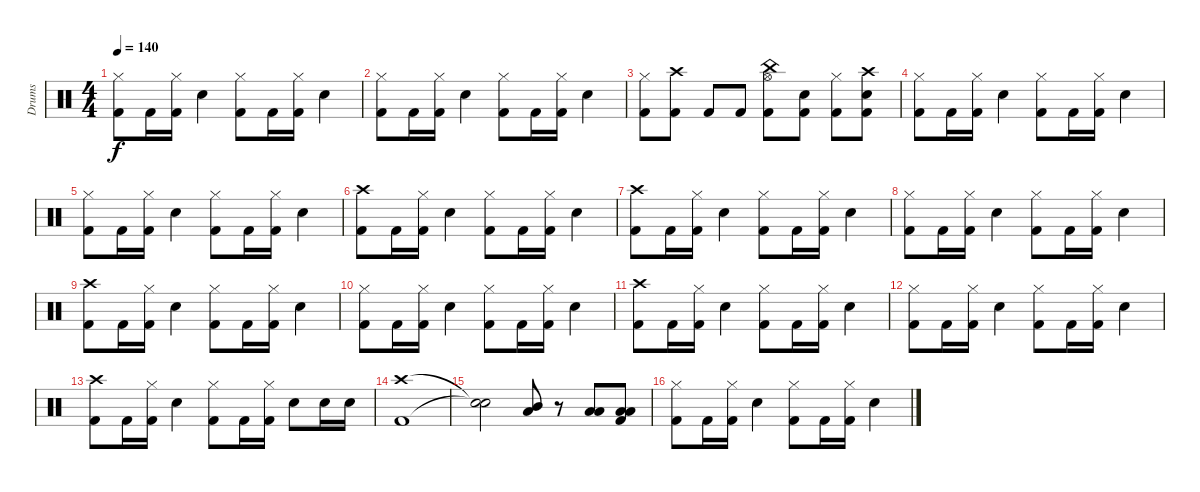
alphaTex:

\track ("Drums" "Drums") {instrument percussion}
\staff {score}
\articulation defaults
\ts (4 4)
\tempo 140
\clef neutral
\ks c
("Hi-Hat (closed)" "Kick (hit) 2").8{dy f} "Kick (hit) 2".16 ("Hi-Hat (closed)" "Kick (hit) 2").16 "Electric Snare (hit)".4 ("Hi-Hat (closed)" "Kick (hit) 2").8 "Kick (hit) 2".16 ("Hi-Hat (closed)" "Kick (hit) 2").16 "Electric Snare (hit)".4 |
("Hi-Hat (closed)" "Kick (hit) 2").8 "Kick (hit) 2".16 ("Hi-Hat (closed)" "Kick (hit) 2").16 "Electric Snare (hit)".4 ("Hi-Hat (closed)" "Kick (hit) 2").8 "Kick (hit) 2".16 ("Hi-Hat (closed)" "Kick (hit) 2").16 "Electric Snare (hit)".4 |
("Hi-Hat (closed)" "Kick (hit) 2").8 ("Crash high (hit)" "Kick (hit) 2").8 "Kick (hit) 2".8 "Kick (hit) 2".8 ("China (hit)" "Hi-Hat (open)" "Kick (hit) 2").8 ("Electric Snare (hit)" "Kick (hit) 2").8 ("Hi-Hat (closed)" "Kick (hit) 2").8 ("Crash high (hit)" "Electric Snare (hit)" "Kick (hit) 2").8 |
("Hi-Hat (closed)" "Kick (hit) 2").8 "Kick (hit) 2".16 ("Hi-Hat (closed)" "Kick (hit) 2").16 "Electric Snare (hit)".4 ("Hi-Hat (closed)" "Kick (hit) 2").8 "Kick (hit) 2".16 ("Hi-Hat (closed)" "Kick (hit) 2").16 "Electric Snare (hit)".4 |
("Hi-Hat (closed)" "Kick (hit) 2").8 "Kick (hit) 2".16 ("Hi-Hat (closed)" "Kick (hit) 2").16 "Electric Snare (hit)".4 ("Hi-Hat (closed)" "Kick (hit) 2").8 "Kick (hit) 2".16 ("Hi-Hat (closed)" "Kick (hit) 2").16 "Electric Snare (hit)".4 |
("Crash high (hit)" "Kick (hit) 2").8 "Kick (hit) 2".16 ("Hi-Hat (closed)" "Kick (hit) 2").16 "Electric Snare (hit)".4 ("Hi-Hat (closed)" "Kick (hit) 2").8 "Kick (hit) 2".16 ("Hi-Hat (closed)" "Kick (hit) 2").16 "Electric Snare (hit)".4 |
("Crash high (hit)" "Kick (hit) 2").8 "Kick (hit) 2".16 ("Hi-Hat (closed)" "Kick (hit) 2").16 "Electric Snare (hit)".4 ("Hi-Hat (closed)" "Kick (hit) 2").8 "Kick (hit) 2".16 ("Hi-Hat (closed)" "Kick (hit) 2").16 "Electric Snare (hit)".4 |
("Hi-Hat (closed)" "Kick (hit) 2").8 "Kick (hit) 2".16 ("Hi-Hat (closed)" "Kick (hit) 2").16 "Electric Snare (hit)".4 ("Hi-Hat (closed)" "Kick (hit) 2").8 "Kick (hit) 2".16 ("Hi-Hat (closed)" "Kick (hit) 2").16 "Electric Snare (hit)".4 |
("Crash high (hit)" "Kick (hit) 2").8 "Kick (hit) 2".16 ("Hi-Hat (closed)" "Kick (hit) 2").16 "Electric Snare (hit)".4 ("Hi-Hat (closed)" "Kick (hit) 2").8 "Kick (hit) 2".16 ("Hi-Hat (closed)" "Kick (hit) 2").16 "Electric Snare (hit)".4 |
("Hi-Hat (closed)" "Kick (hit) 2").8 "Kick (hit) 2".16 ("Hi-Hat (closed)" "Kick (hit) 2").16 "Electric Snare (hit)".4 ("Hi-Hat (closed)" "Kick (hit) 2").8 "Kick (hit) 2".16 ("Hi-Hat (closed)" "Kick (hit) 2").16 "Electric Snare (hit)".4 |
("Crash high (hit)" "Kick (hit) 2").8 "Kick (hit) 2".16 ("Hi-Hat (closed)" "Kick (hit) 2").16 "Electric Snare (hit)".4 ("Hi-Hat (closed)" "Kick (hit) 2").8 "Kick (hit) 2".16 ("Hi-Hat (closed)" "Kick (hit) 2").16 "Electric Snare (hit)".4 |
("Hi-Hat (closed)" "Kick (hit) 2").8 "Kick (hit) 2".16 ("Hi-Hat (closed)" "Kick (hit) 2").16 "Electric Snare (hit)".4 ("Hi-Hat (closed)" "Kick (hit) 2").8 "Kick (hit) 2".16 ("Hi-Hat (closed)" "Kick (hit) 2").16 "Electric Snare (hit)".4 |
("Crash high (hit)" "Kick (hit) 2").8 "Kick (hit) 2".16 ("Hi-Hat (closed)" "Kick (hit) 2").16 "Electric Snare (hit)".4 ("Hi-Hat (closed)" "Kick (hit) 2").8 "Kick (hit) 2".16 ("Hi-Hat (closed)" "Kick (hit) 2").16 "Electric Snare (hit)".8 "Electric Snare (hit)".16 "Electric Snare (hit)".16 |
("Crash high (hit)" "Kick (hit) 2").1 |
("Snare (hit)"{t} "Snare (hit)"{t}).2 ("Low Tom (hit)" "Mid Tom (hit)").8 r.8 ("Low Tom (hit)" "Low Floor Tom (hit)").8 ("Low Tom (hit)" "Low Floor Tom (hit)" "Kick (hit) 2").8 |
("Hi-Hat (closed)" "Kick (hit) 2").8 "Kick (hit) 2".16 ("Hi-Hat (closed)" "Kick (hit) 2").16 "Electric Snare (hit)".4 ("Hi-Hat (closed)" "Kick (hit) 2").8 "Kick (hit) 2".16 ("Hi-Hat (closed)" "Kick (hit) 2").16 "Electric Snare (hit)".4
